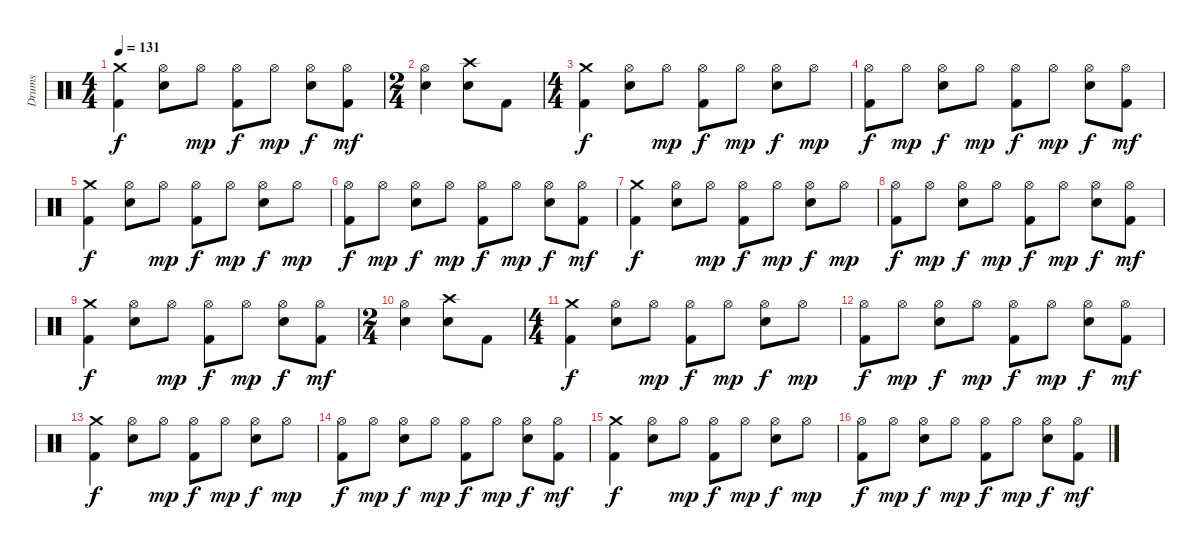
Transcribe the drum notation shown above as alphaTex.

\track ("Drums" "Drums") {instrument percussion}
\staff {score}
\articulation defaults
\ts (4 4)
\tempo 131
\clef neutral
\ks c
("Crash medium (hit)" "Kick (hit) 2").4{dy f} ("Hi-Hat (open)" "Electric Snare (hit)").8 "Hi-Hat (open)".8{dy mp} ("Hi-Hat (open)" "Kick (hit) 2").8{dy f} "Hi-Hat (open)".8{dy mp} ("Hi-Hat (open)" "Electric Snare (hit)").8{dy f} ("Hi-Hat (open)" "Kick (hit) 2").8{dy mf} |
\ts (2 4)
("Hi-Hat (open)" "Electric Snare (hit)").4 ("Crash high (hit)" "Electric Snare (hit)").8 "Kick (hit) 2".8 |
\ts (4 4)
("Crash medium (hit)" "Kick (hit) 2").4{dy f} ("Hi-Hat (open)" "Electric Snare (hit)").8 "Hi-Hat (open)".8{dy mp} ("Hi-Hat (open)" "Kick (hit) 2").8{dy f} "Hi-Hat (open)".8{dy mp} ("Hi-Hat (open)" "Electric Snare (hit)").8{dy f} "Hi-Hat (open)".8{dy mp} |
("Hi-Hat (open)" "Kick (hit) 2").8{dy f} "Hi-Hat (open)".8{dy mp} ("Hi-Hat (open)" "Electric Snare (hit)").8{dy f} "Hi-Hat (open)".8{dy mp} ("Hi-Hat (open)" "Kick (hit) 2").8{dy f} "Hi-Hat (open)".8{dy mp} ("Hi-Hat (open)" "Electric Snare (hit)").8{dy f} ("Hi-Hat (open)" "Kick (hit) 2").8{dy mf} |
("Crash medium (hit)" "Kick (hit) 2").4{dy f} ("Hi-Hat (open)" "Electric Snare (hit)").8 "Hi-Hat (open)".8{dy mp} ("Hi-Hat (open)" "Kick (hit) 2").8{dy f} "Hi-Hat (open)".8{dy mp} ("Hi-Hat (open)" "Electric Snare (hit)").8{dy f} "Hi-Hat (open)".8{dy mp} |
("Hi-Hat (open)" "Kick (hit) 2").8{dy f} "Hi-Hat (open)".8{dy mp} ("Hi-Hat (open)" "Electric Snare (hit)").8{dy f} "Hi-Hat (open)".8{dy mp} ("Hi-Hat (open)" "Kick (hit) 2").8{dy f} "Hi-Hat (open)".8{dy mp} ("Hi-Hat (open)" "Electric Snare (hit)").8{dy f} ("Hi-Hat (open)" "Kick (hit) 2").8{dy mf} |
("Crash medium (hit)" "Kick (hit) 2").4{dy f} ("Hi-Hat (open)" "Electric Snare (hit)").8 "Hi-Hat (open)".8{dy mp} ("Hi-Hat (open)" "Kick (hit) 2").8{dy f} "Hi-Hat (open)".8{dy mp} ("Hi-Hat (open)" "Electric Snare (hit)").8{dy f} "Hi-Hat (open)".8{dy mp} |
("Hi-Hat (open)" "Kick (hit) 2").8{dy f} "Hi-Hat (open)".8{dy mp} ("Hi-Hat (open)" "Electric Snare (hit)").8{dy f} "Hi-Hat (open)".8{dy mp} ("Hi-Hat (open)" "Kick (hit) 2").8{dy f} "Hi-Hat (open)".8{dy mp} ("Hi-Hat (open)" "Electric Snare (hit)").8{dy f} ("Hi-Hat (open)" "Kick (hit) 2").8{dy mf} |
("Crash medium (hit)" "Kick (hit) 2").4{dy f} ("Hi-Hat (open)" "Electric Snare (hit)").8 "Hi-Hat (open)".8{dy mp} ("Hi-Hat (open)" "Kick (hit) 2").8{dy f} "Hi-Hat (open)".8{dy mp} ("Hi-Hat (open)" "Electric Snare (hit)").8{dy f} ("Hi-Hat (open)" "Kick (hit) 2").8{dy mf} |
\ts (2 4)
("Hi-Hat (open)" "Electric Snare (hit)").4 ("Crash high (hit)" "Electric Snare (hit)").8 "Kick (hit) 2".8 |
\ts (4 4)
("Crash medium (hit)" "Kick (hit) 2").4{dy f} ("Hi-Hat (open)" "Electric Snare (hit)").8 "Hi-Hat (open)".8{dy mp} ("Hi-Hat (open)" "Kick (hit) 2").8{dy f} "Hi-Hat (open)".8{dy mp} ("Hi-Hat (open)" "Electric Snare (hit)").8{dy f} "Hi-Hat (open)".8{dy mp} |
("Hi-Hat (open)" "Kick (hit) 2").8{dy f} "Hi-Hat (open)".8{dy mp} ("Hi-Hat (open)" "Electric Snare (hit)").8{dy f} "Hi-Hat (open)".8{dy mp} ("Hi-Hat (open)" "Kick (hit) 2").8{dy f} "Hi-Hat (open)".8{dy mp} ("Hi-Hat (open)" "Electric Snare (hit)").8{dy f} ("Hi-Hat (open)" "Kick (hit) 2").8{dy mf} |
("Crash medium (hit)" "Kick (hit) 2").4{dy f} ("Hi-Hat (open)" "Electric Snare (hit)").8 "Hi-Hat (open)".8{dy mp} ("Hi-Hat (open)" "Kick (hit) 2").8{dy f} "Hi-Hat (open)".8{dy mp} ("Hi-Hat (open)" "Electric Snare (hit)").8{dy f} "Hi-Hat (open)".8{dy mp} |
("Hi-Hat (open)" "Kick (hit) 2").8{dy f} "Hi-Hat (open)".8{dy mp} ("Hi-Hat (open)" "Electric Snare (hit)").8{dy f} "Hi-Hat (open)".8{dy mp} ("Hi-Hat (open)" "Kick (hit) 2").8{dy f} "Hi-Hat (open)".8{dy mp} ("Hi-Hat (open)" "Electric Snare (hit)").8{dy f} ("Hi-Hat (open)" "Kick (hit) 2").8{dy mf} |
("Crash medium (hit)" "Kick (hit) 2").4{dy f} ("Hi-Hat (open)" "Electric Snare (hit)").8 "Hi-Hat (open)".8{dy mp} ("Hi-Hat (open)" "Kick (hit) 2").8{dy f} "Hi-Hat (open)".8{dy mp} ("Hi-Hat (open)" "Electric Snare (hit)").8{dy f} "Hi-Hat (open)".8{dy mp} |
("Hi-Hat (open)" "Kick (hit) 2").8{dy f} "Hi-Hat (open)".8{dy mp} ("Hi-Hat (open)" "Electric Snare (hit)").8{dy f} "Hi-Hat (open)".8{dy mp} ("Hi-Hat (open)" "Kick (hit) 2").8{dy f} "Hi-Hat (open)".8{dy mp} ("Hi-Hat (open)" "Electric Snare (hit)").8{dy f} ("Hi-Hat (open)" "Kick (hit) 2").8{dy mf}
